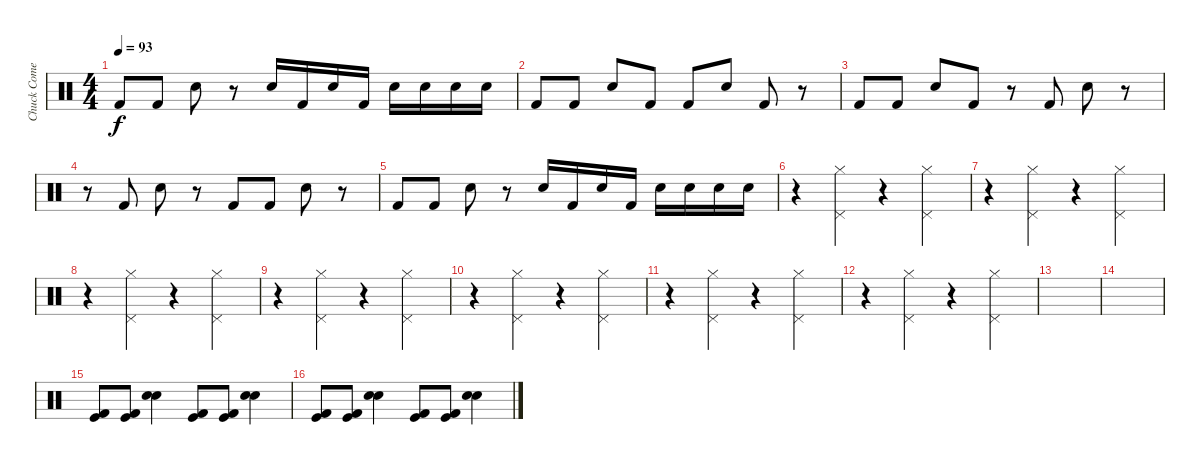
\track ("Chuck Comeau" "Chuck Come") {instrument percussion}
\staff {score}
\articulation defaults
\ts (4 4)
\tempo 93
\clef neutral
\ks c "Kick (hit) 2".8{dy f} "Kick (hit) 2".8 "Electric Snare (hit)".8
r.8 "Electric Snare (hit)".16 "Kick (hit) 2".16 "Electric Snare (hit)".16 "Kick (hit) 2".16 "Electric Snare (hit)".16 "Electric Snare (hit)".16 "Electric Snare (hit)".16 "Electric Snare (hit)".16 |
"Kick (hit) 2".8 "Kick (hit) 2".8 "Electric Snare (hit)".8 "Kick (hit) 2".8 "Kick (hit) 2".8 "Electric Snare (hit)".8 "Kick (hit) 2".8 r.8 |
"Kick (hit) 2".8 "Kick (hit) 2".8 "Electric Snare (hit)".8 "Kick (hit) 2".8 r.8 "Kick (hit) 2".8 "Electric Snare (hit)".8 r.8 |
r.8 "Kick (hit) 2".8 "Electric Snare (hit)".8 r.8 "Kick (hit) 2".8 "Kick (hit) 2".8 "Electric Snare (hit)".8 r.8 |
"Kick (hit) 2".8 "Kick (hit) 2".8 "Electric Snare (hit)".8 r.8 "Electric Snare (hit)".16 "Kick (hit) 2".16 "Electric Snare (hit)".16 "Kick (hit) 2".16 "Electric Snare (hit)".16 "Electric Snare (hit)".16 "Electric Snare (hit)".16 "Electric Snare (hit)".16 |
r.4 ("Pedal Hi-Hat (hit)" "Hi-Hat (closed)").4 r.4 ("Pedal Hi-Hat (hit)" "Hi-Hat (closed)").4 |
r.4 ("Pedal Hi-Hat (hit)" "Hi-Hat (closed)").4 r.4 ("Pedal Hi-Hat (hit)" "Hi-Hat (closed)").4 |
r.4 ("Pedal Hi-Hat (hit)" "Hi-Hat (closed)").4 r.4 ("Pedal Hi-Hat (hit)" "Hi-Hat (closed)").4 |
r.4 ("Pedal Hi-Hat (hit)" "Hi-Hat (closed)").4 r.4 ("Pedal Hi-Hat (hit)" "Hi-Hat (closed)").4 |
r.4 ("Pedal Hi-Hat (hit)" "Hi-Hat (closed)").4 r.4 ("Pedal Hi-Hat (hit)" "Hi-Hat (closed)").4 |
r.4 ("Pedal Hi-Hat (hit)" "Hi-Hat (closed)").4 r.4 ("Pedal Hi-Hat (hit)" "Hi-Hat (closed)").4 |
r.4 ("Pedal Hi-Hat (hit)" "Hi-Hat (closed)").4 r.4 ("Pedal Hi-Hat (hit)" "Hi-Hat (closed)").4 |
|
|
("Kick (hit) 2" "Kick (hit)").8 ("Kick (hit) 2" "Kick (hit)").8 ("Electric Snare (hit)" "Snare (hit) 2").4 ("Kick (hit) 2" "Kick (hit)").8 ("Kick (hit) 2" "Kick (hit)").8 ("Electric Snare (hit)" "Snare (hit) 2").4 |
("Kick (hit) 2" "Kick (hit)").8 ("Kick (hit) 2" "Kick (hit)").8 ("Electric Snare (hit)" "Snare (hit) 2").4 ("Kick (hit) 2" "Kick (hit)").8 ("Kick (hit) 2" "Kick (hit)").8 ("Electric Snare (hit)" "Snare (hit) 2").4
